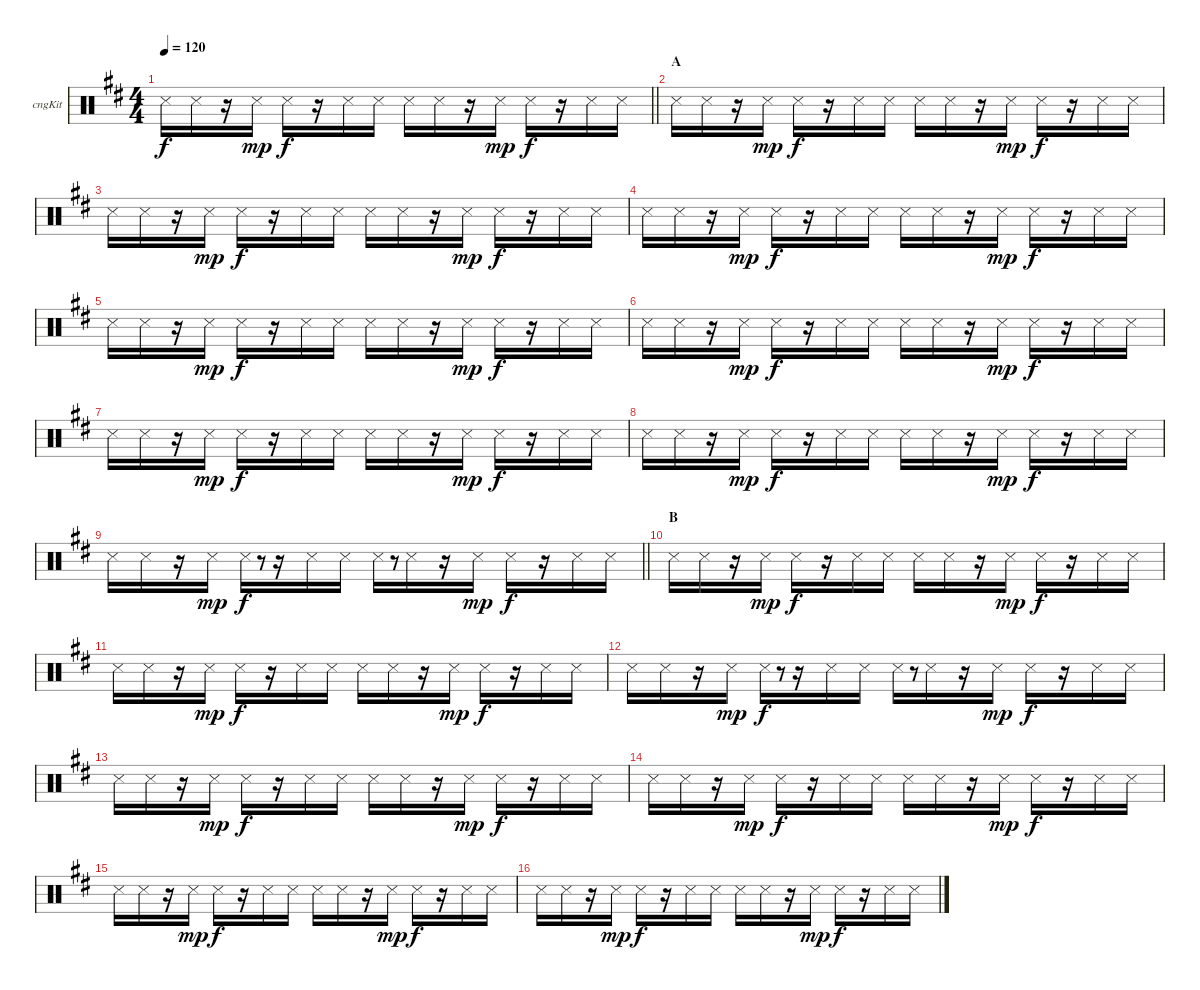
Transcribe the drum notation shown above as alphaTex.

\bracketExtendMode groupsimilarinstruments
\firstSystemTrackNameOrientation horizontal
\otherSystemsTrackNameOrientation horizontal
\track ("Congas" "cngKit") {instrument percussion}
\staff {score}
\articulation defaults
\ts (4 4)
\tempo 120
\clef neutral
\barLineRight lightlight
\ks d "Snare (side stick) 3".16{dy f} "Snare (side stick) 3".16
r.16 "Snare (side stick) 3".16{dy mp} "Snare (side stick) 3".16{dy f} r.16 "Snare (side stick) 3".16 "Snare (side stick) 3".16 "Snare (side stick) 3".16 "Snare (side stick) 3".16 r.16 "Snare (side stick) 3".16{dy mp} "Snare (side stick) 3".16{dy f} r.16 "Snare (side stick) 3".16 "Snare (side stick) 3".16 |
\section ("" "A")
"Snare (side stick) 3".16 "Snare (side stick) 3".16 r.16 "Snare (side stick) 3".16{dy mp} "Snare (side stick) 3".16{dy f} r.16 "Snare (side stick) 3".16 "Snare (side stick) 3".16 "Snare (side stick) 3".16 "Snare (side stick) 3".16 r.16 "Snare (side stick) 3".16{dy mp} "Snare (side stick) 3".16{dy f} r.16 "Snare (side stick) 3".16 "Snare (side stick) 3".16 |
"Snare (side stick) 3".16 "Snare (side stick) 3".16 r.16 "Snare (side stick) 3".16{dy mp} "Snare (side stick) 3".16{dy f} r.16 "Snare (side stick) 3".16 "Snare (side stick) 3".16 "Snare (side stick) 3".16 "Snare (side stick) 3".16 r.16 "Snare (side stick) 3".16{dy mp} "Snare (side stick) 3".16{dy f} r.16 "Snare (side stick) 3".16 "Snare (side stick) 3".16 |
"Snare (side stick) 3".16 "Snare (side stick) 3".16 r.16 "Snare (side stick) 3".16{dy mp} "Snare (side stick) 3".16{dy f} r.16 "Snare (side stick) 3".16 "Snare (side stick) 3".16 "Snare (side stick) 3".16 "Snare (side stick) 3".16 r.16 "Snare (side stick) 3".16{dy mp} "Snare (side stick) 3".16{dy f} r.16 "Snare (side stick) 3".16 "Snare (side stick) 3".16 |
"Snare (side stick) 3".16 "Snare (side stick) 3".16 r.16 "Snare (side stick) 3".16{dy mp} "Snare (side stick) 3".16{dy f} r.16 "Snare (side stick) 3".16 "Snare (side stick) 3".16 "Snare (side stick) 3".16 "Snare (side stick) 3".16 r.16 "Snare (side stick) 3".16{dy mp} "Snare (side stick) 3".16{dy f} r.16 "Snare (side stick) 3".16 "Snare (side stick) 3".16 |
"Snare (side stick) 3".16 "Snare (side stick) 3".16 r.16 "Snare (side stick) 3".16{dy mp} "Snare (side stick) 3".16{dy f} r.16 "Snare (side stick) 3".16 "Snare (side stick) 3".16 "Snare (side stick) 3".16 "Snare (side stick) 3".16 r.16 "Snare (side stick) 3".16{dy mp} "Snare (side stick) 3".16{dy f} r.16 "Snare (side stick) 3".16 "Snare (side stick) 3".16 |
"Snare (side stick) 3".16 "Snare (side stick) 3".16 r.16 "Snare (side stick) 3".16{dy mp} "Snare (side stick) 3".16{dy f} r.16 "Snare (side stick) 3".16 "Snare (side stick) 3".16 "Snare (side stick) 3".16 "Snare (side stick) 3".16 r.16 "Snare (side stick) 3".16{dy mp} "Snare (side stick) 3".16{dy f} r.16 "Snare (side stick) 3".16 "Snare (side stick) 3".16 |
"Snare (side stick) 3".16 "Snare (side stick) 3".16 r.16 "Snare (side stick) 3".16{dy mp} "Snare (side stick) 3".16{dy f} r.16 "Snare (side stick) 3".16 "Snare (side stick) 3".16 "Snare (side stick) 3".16 "Snare (side stick) 3".16 r.16 "Snare (side stick) 3".16{dy mp} "Snare (side stick) 3".16{dy f} r.16 "Snare (side stick) 3".16 "Snare (side stick) 3".16 |
\barLineRight lightlight "Snare (side stick) 3".16 "Snare (side stick) 3".16
r.16 "Snare (side stick) 3".16{dy mp} "Snare (side stick) 3".16{dy f} r.8{gr} r.16 "Snare (side stick) 3".16 "Snare (side stick) 3".16 "Snare (side stick) 3".16 r.8{gr} "Snare (side stick) 3".16 r.16 "Snare (side stick) 3".16{dy mp} "Snare (side stick) 3".16{dy f} r.16 "Snare (side stick) 3".16 "Snare (side stick) 3".16 |
\section ("" "B")
"Snare (side stick) 3".16 "Snare (side stick) 3".16 r.16 "Snare (side stick) 3".16{dy mp} "Snare (side stick) 3".16{dy f} r.16 "Snare (side stick) 3".16 "Snare (side stick) 3".16 "Snare (side stick) 3".16 "Snare (side stick) 3".16 r.16 "Snare (side stick) 3".16{dy mp} "Snare (side stick) 3".16{dy f} r.16 "Snare (side stick) 3".16 "Snare (side stick) 3".16 |
"Snare (side stick) 3".16 "Snare (side stick) 3".16 r.16 "Snare (side stick) 3".16{dy mp} "Snare (side stick) 3".16{dy f} r.16 "Snare (side stick) 3".16 "Snare (side stick) 3".16 "Snare (side stick) 3".16 "Snare (side stick) 3".16 r.16 "Snare (side stick) 3".16{dy mp} "Snare (side stick) 3".16{dy f} r.16 "Snare (side stick) 3".16 "Snare (side stick) 3".16 |
"Snare (side stick) 3".16 "Snare (side stick) 3".16 r.16 "Snare (side stick) 3".16{dy mp} "Snare (side stick) 3".16{dy f} r.8{gr} r.16 "Snare (side stick) 3".16 "Snare (side stick) 3".16 "Snare (side stick) 3".16 r.8{gr} "Snare (side stick) 3".16 r.16 "Snare (side stick) 3".16{dy mp} "Snare (side stick) 3".16{dy f} r.16 "Snare (side stick) 3".16 "Snare (side stick) 3".16 |
"Snare (side stick) 3".16 "Snare (side stick) 3".16 r.16 "Snare (side stick) 3".16{dy mp} "Snare (side stick) 3".16{dy f} r.16 "Snare (side stick) 3".16 "Snare (side stick) 3".16 "Snare (side stick) 3".16 "Snare (side stick) 3".16 r.16 "Snare (side stick) 3".16{dy mp} "Snare (side stick) 3".16{dy f} r.16 "Snare (side stick) 3".16 "Snare (side stick) 3".16 |
"Snare (side stick) 3".16 "Snare (side stick) 3".16 r.16 "Snare (side stick) 3".16{dy mp} "Snare (side stick) 3".16{dy f} r.16 "Snare (side stick) 3".16 "Snare (side stick) 3".16 "Snare (side stick) 3".16 "Snare (side stick) 3".16 r.16 "Snare (side stick) 3".16{dy mp} "Snare (side stick) 3".16{dy f} r.16 "Snare (side stick) 3".16 "Snare (side stick) 3".16 |
"Snare (side stick) 3".16 "Snare (side stick) 3".16 r.16 "Snare (side stick) 3".16{dy mp} "Snare (side stick) 3".16{dy f} r.16 "Snare (side stick) 3".16 "Snare (side stick) 3".16 "Snare (side stick) 3".16 "Snare (side stick) 3".16 r.16 "Snare (side stick) 3".16{dy mp} "Snare (side stick) 3".16{dy f} r.16 "Snare (side stick) 3".16 "Snare (side stick) 3".16 |
"Snare (side stick) 3".16 "Snare (side stick) 3".16 r.16 "Snare (side stick) 3".16{dy mp} "Snare (side stick) 3".16{dy f} r.16 "Snare (side stick) 3".16 "Snare (side stick) 3".16 "Snare (side stick) 3".16 "Snare (side stick) 3".16 r.16 "Snare (side stick) 3".16{dy mp} "Snare (side stick) 3".16{dy f} r.16 "Snare (side stick) 3".16 "Snare (side stick) 3".16
